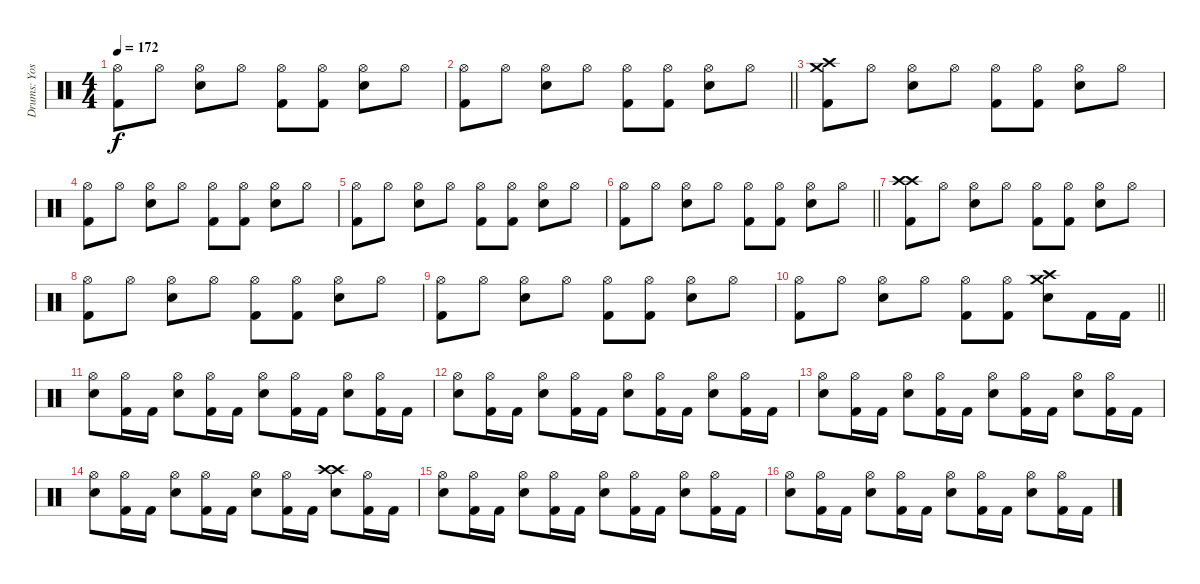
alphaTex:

\track ("Drums: Yoshiki" "Drums: Yos") {instrument percussion}
\staff {score}
\articulation defaults
\ts (4 4)
\tempo 172
\clef neutral
\ks c
("Hi-Hat (open)" "Kick (hit) 2").8{dy f} "Hi-Hat (open)".8 ("Hi-Hat (open)" "Snare (hit) 2").8 "Hi-Hat (open)".8 ("Hi-Hat (open)" "Kick (hit) 2").8 ("Hi-Hat (open)" "Kick (hit) 2").8 ("Hi-Hat (open)" "Snare (hit) 2").8 "Hi-Hat (open)".8 |
\barLineRight lightlight
("Hi-Hat (open)" "Kick (hit) 2").8 "Hi-Hat (open)".8 ("Hi-Hat (open)" "Snare (hit) 2").8 "Hi-Hat (open)".8 ("Hi-Hat (open)" "Kick (hit) 2").8 ("Hi-Hat (open)" "Kick (hit) 2").8 ("Hi-Hat (open)" "Snare (hit) 2").8 "Hi-Hat (open)".8 |
("Crash high (hit)" "Crash medium (hit)" "Kick (hit) 2").8 "Hi-Hat (open)".8 ("Hi-Hat (open)" "Snare (hit) 2").8 "Hi-Hat (open)".8 ("Hi-Hat (open)" "Kick (hit) 2").8 ("Hi-Hat (open)" "Kick (hit) 2").8 ("Hi-Hat (open)" "Snare (hit) 2").8 "Hi-Hat (open)".8 |
("Hi-Hat (open)" "Kick (hit) 2").8 "Hi-Hat (open)".8 ("Hi-Hat (open)" "Snare (hit) 2").8 "Hi-Hat (open)".8 ("Hi-Hat (open)" "Kick (hit) 2").8 ("Hi-Hat (open)" "Kick (hit) 2").8 ("Hi-Hat (open)" "Snare (hit) 2").8 "Hi-Hat (open)".8 |
("Hi-Hat (open)" "Kick (hit) 2").8 "Hi-Hat (open)".8 ("Hi-Hat (open)" "Snare (hit) 2").8 "Hi-Hat (open)".8 ("Hi-Hat (open)" "Kick (hit) 2").8 ("Hi-Hat (open)" "Kick (hit) 2").8 ("Hi-Hat (open)" "Snare (hit) 2").8 "Hi-Hat (open)".8 |
\barLineRight lightlight
("Hi-Hat (open)" "Kick (hit) 2").8 "Hi-Hat (open)".8 ("Hi-Hat (open)" "Snare (hit) 2").8 "Hi-Hat (open)".8 ("Hi-Hat (open)" "Kick (hit) 2").8 ("Hi-Hat (open)" "Kick (hit) 2").8 ("Hi-Hat (open)" "Snare (hit) 2").8 "Hi-Hat (open)".8 |
("Crash high (hit)" "Crash high (hit)" "Kick (hit) 2").8 "Hi-Hat (open)".8 ("Hi-Hat (open)" "Snare (hit) 2").8 "Hi-Hat (open)".8 ("Hi-Hat (open)" "Kick (hit) 2").8 ("Hi-Hat (open)" "Kick (hit) 2").8 ("Hi-Hat (open)" "Snare (hit) 2").8 "Hi-Hat (open)".8 |
("Hi-Hat (open)" "Kick (hit) 2").8 "Hi-Hat (open)".8 ("Hi-Hat (open)" "Snare (hit) 2").8 "Hi-Hat (open)".8 ("Hi-Hat (open)" "Kick (hit) 2").8 ("Hi-Hat (open)" "Kick (hit) 2").8 ("Hi-Hat (open)" "Snare (hit) 2").8 "Hi-Hat (open)".8 |
("Hi-Hat (open)" "Kick (hit) 2").8 "Hi-Hat (open)".8 ("Hi-Hat (open)" "Snare (hit) 2").8 "Hi-Hat (open)".8 ("Hi-Hat (open)" "Kick (hit) 2").8 ("Hi-Hat (open)" "Kick (hit) 2").8 ("Hi-Hat (open)" "Snare (hit) 2").8 "Hi-Hat (open)".8 |
\barLineRight lightlight
("Hi-Hat (open)" "Kick (hit) 2").8 "Hi-Hat (open)".8 ("Hi-Hat (open)" "Snare (hit) 2").8 "Hi-Hat (open)".8 ("Hi-Hat (open)" "Kick (hit) 2").8 ("Hi-Hat (open)" "Kick (hit) 2").8 ("Crash high (hit)" "Crash medium (hit)" "Snare (hit) 2").8 "Kick (hit) 2".16 "Kick (hit) 2".16 |
("Hi-Hat (open)" "Snare (hit) 2").8 ("Hi-Hat (open)" "Kick (hit) 2").16 "Kick (hit) 2".16 ("Hi-Hat (open)" "Snare (hit) 2").8 ("Hi-Hat (open)" "Kick (hit) 2").16 "Kick (hit) 2".16 ("Hi-Hat (open)" "Snare (hit) 2").8 ("Hi-Hat (open)" "Kick (hit) 2").16 "Kick (hit) 2".16 ("Hi-Hat (open)" "Snare (hit) 2").8 ("Hi-Hat (open)" "Kick (hit) 2").16 "Kick (hit) 2".16 |
("Hi-Hat (open)" "Snare (hit) 2").8 ("Hi-Hat (open)" "Kick (hit) 2").16 "Kick (hit) 2".16 ("Hi-Hat (open)" "Snare (hit) 2").8 ("Hi-Hat (open)" "Kick (hit) 2").16 "Kick (hit) 2".16 ("Hi-Hat (open)" "Snare (hit) 2").8 ("Hi-Hat (open)" "Kick (hit) 2").16 "Kick (hit) 2".16 ("Hi-Hat (open)" "Snare (hit) 2").8 ("Hi-Hat (open)" "Kick (hit) 2").16 "Kick (hit) 2".16 |
("Hi-Hat (open)" "Snare (hit) 2").8 ("Hi-Hat (open)" "Kick (hit) 2").16 "Kick (hit) 2".16 ("Hi-Hat (open)" "Snare (hit) 2").8 ("Hi-Hat (open)" "Kick (hit) 2").16 "Kick (hit) 2".16 ("Hi-Hat (open)" "Snare (hit) 2").8 ("Hi-Hat (open)" "Kick (hit) 2").16 "Kick (hit) 2".16 ("Hi-Hat (open)" "Snare (hit) 2").8 ("Hi-Hat (open)" "Kick (hit) 2").16 "Kick (hit) 2".16 |
("Hi-Hat (open)" "Snare (hit) 2").8 ("Hi-Hat (open)" "Kick (hit) 2").16 "Kick (hit) 2".16 ("Hi-Hat (open)" "Snare (hit) 2").8 ("Hi-Hat (open)" "Kick (hit) 2").16 "Kick (hit) 2".16 ("Hi-Hat (open)" "Snare (hit) 2").8 ("Hi-Hat (open)" "Kick (hit) 2").16 "Kick (hit) 2".16 ("Crash high (hit)" "Crash high (hit)" "Snare (hit) 2").8 ("Hi-Hat (open)" "Kick (hit) 2").16 "Kick (hit) 2".16 |
("Hi-Hat (open)" "Snare (hit) 2").8 ("Hi-Hat (open)" "Kick (hit) 2").16 "Kick (hit) 2".16 ("Hi-Hat (open)" "Snare (hit) 2").8 ("Hi-Hat (open)" "Kick (hit) 2").16 "Kick (hit) 2".16 ("Hi-Hat (open)" "Snare (hit) 2").8 ("Hi-Hat (open)" "Kick (hit) 2").16 "Kick (hit) 2".16 ("Hi-Hat (open)" "Snare (hit) 2").8 ("Hi-Hat (open)" "Kick (hit) 2").16 "Kick (hit) 2".16 |
("Hi-Hat (open)" "Snare (hit) 2").8 ("Hi-Hat (open)" "Kick (hit) 2").16 "Kick (hit) 2".16 ("Hi-Hat (open)" "Snare (hit) 2").8 ("Hi-Hat (open)" "Kick (hit) 2").16 "Kick (hit) 2".16 ("Hi-Hat (open)" "Snare (hit) 2").8 ("Hi-Hat (open)" "Kick (hit) 2").16 "Kick (hit) 2".16 ("Hi-Hat (open)" "Snare (hit) 2").8 ("Hi-Hat (open)" "Kick (hit) 2").16 "Kick (hit) 2".16
